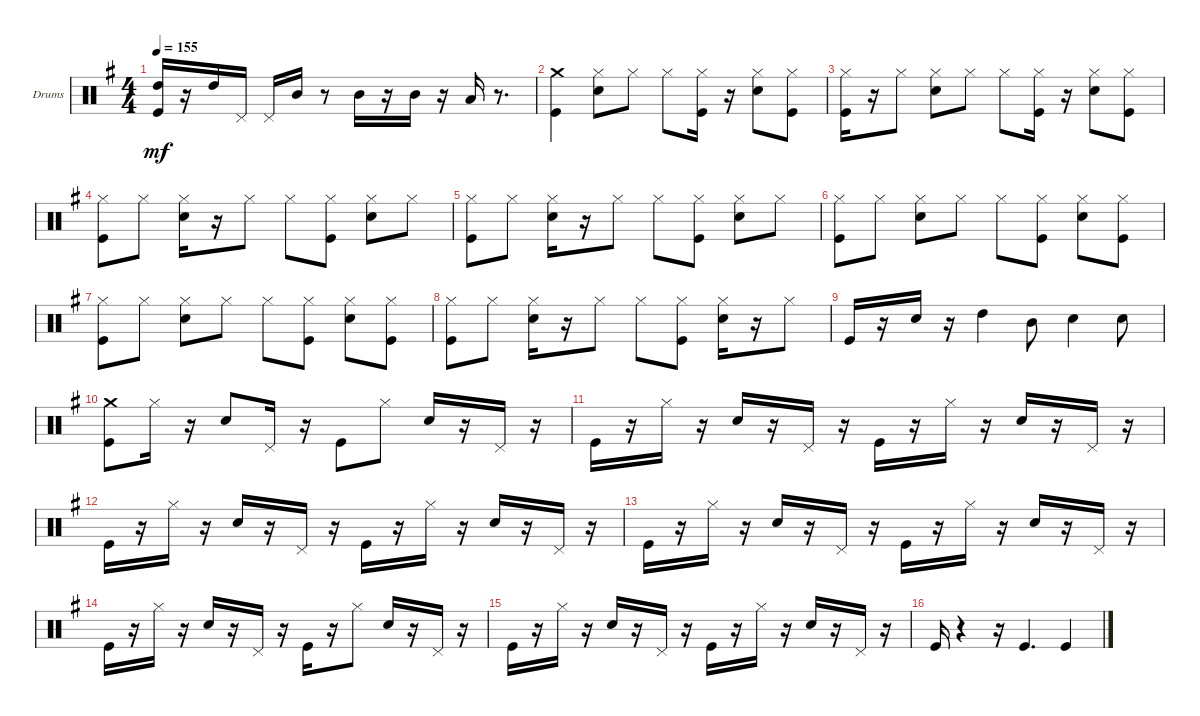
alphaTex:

\bracketExtendMode groupsimilarinstruments
\firstSystemTrackNameOrientation horizontal
\otherSystemsTrackNameOrientation horizontal
\track ("Drumkit" "Drums") {instrument percussion}
\staff {score}
\articulation defaults
\ts (4 4)
\tempo 155
\clef neutral
\scale
0.333333
\ks g
("High Tom (hit)" "Kick (hit)").16{dy mf} r.16 "High Tom (hit)".16 "Pedal Hi-Hat (hit)".16 "Pedal Hi-Hat (hit)".16 "Mid Tom (hit)".16 r.8 "Mid Tom (hit)".16 r.16 "Mid Tom (hit)".16 r.16 "Low Tom (hit)".16 r.8{d} |
\scale
0.333333 ("Crash medium (hit)" "Kick (hit)").4 ("Hi-Hat (closed)" "Snare (hit) 2").8 "Hi-Hat (closed)".8 "Hi-Hat (closed)".8 ("Hi-Hat (closed)" "Kick (hit)").16 r.16 ("Hi-Hat (closed)" "Snare (hit) 2").8 ("Kick (hit)" "Hi-Hat (closed)").8 |
\scale
0.333333 ("Kick (hit)" "Hi-Hat (closed)").16 r.16 "Hi-Hat (closed)".8 ("Hi-Hat (closed)" "Snare (hit) 2").8 "Hi-Hat (closed)".8 "Hi-Hat (closed)".8 ("Hi-Hat (closed)" "Kick (hit)").16 r.16 ("Hi-Hat (closed)" "Snare (hit) 2").8 ("Hi-Hat (closed)" "Kick (hit)").8 |
\scale
0.333333 ("Hi-Hat (closed)" "Kick (hit)").8 "Hi-Hat (closed)".8 ("Hi-Hat (closed)" "Snare (hit) 2").16 r.16 "Hi-Hat (closed)".8 "Hi-Hat (closed)".8 ("Hi-Hat (closed)" "Kick (hit)").8 ("Hi-Hat (closed)" "Snare (hit) 2").8 "Hi-Hat (closed)".8 |
\scale
0.333333 ("Kick (hit)" "Hi-Hat (closed)").8 "Hi-Hat (closed)".8 ("Hi-Hat (closed)" "Snare (hit) 2").16 r.16 "Hi-Hat (closed)".8 "Hi-Hat (closed)".8 ("Hi-Hat (closed)" "Kick (hit)").8 ("Hi-Hat (closed)" "Snare (hit) 2").8 "Hi-Hat (closed)".8 |
\scale
0.333333 ("Hi-Hat (closed)" "Kick (hit)").8 "Hi-Hat (closed)".8 ("Hi-Hat (closed)" "Snare (hit) 2").8 "Hi-Hat (closed)".8 "Hi-Hat (closed)".8 ("Hi-Hat (closed)" "Kick (hit)").8 ("Hi-Hat (closed)" "Snare (hit) 2").8 ("Kick (hit)" "Hi-Hat (closed)").8 |
\scale
0.333333 ("Hi-Hat (closed)" "Kick (hit)").8 "Hi-Hat (closed)".8 ("Hi-Hat (closed)" "Snare (hit) 2").8 "Hi-Hat (closed)".8 "Hi-Hat (closed)".8 ("Hi-Hat (closed)" "Kick (hit)").8 ("Hi-Hat (closed)" "Snare (hit) 2").8 ("Kick (hit)" "Hi-Hat (closed)").8 |
\scale
0.333333 ("Hi-Hat (closed)" "Kick (hit)").8 "Hi-Hat (closed)".8 ("Hi-Hat (closed)" "Snare (hit) 2").16 r.16 "Hi-Hat (closed)".8 "Hi-Hat (closed)".8 ("Hi-Hat (closed)" "Kick (hit)").8 ("Hi-Hat (closed)" "Snare (hit) 2").16 r.16 "Hi-Hat (closed)".8 |
\scale
0.333333 "Kick (hit)".16 r.16 "Snare (hit) 2".16 r.16 "High Tom (hit)".4 "Mid Tom (hit)".8 "Snare (hit) 2".4 "Snare (hit) 2".8 |
\scale
0.333333 ("Crash medium (hit)" "Kick (hit)").8 "Hi-Hat (closed)".16 r.16 "Snare (hit) 2".8 "Pedal Hi-Hat (hit)".16 r.16 "Kick (hit)".8 "Hi-Hat (closed)".8 "Snare (hit) 2".16 r.16 "Pedal Hi-Hat (hit)".16 r.16 |
\scale
0.333333 "Kick (hit)".16 r.16 "Hi-Hat (closed)".16 r.16 "Snare (hit) 2".16 r.16 "Pedal Hi-Hat (hit)".16 r.16 "Kick (hit)".16 r.16 "Hi-Hat (closed)".16 r.16 "Snare (hit) 2".16 r.16 "Pedal Hi-Hat (hit)".16 r.16 |
\scale
0.333333 "Kick (hit)".16 r.16 "Hi-Hat (closed)".16 r.16 "Snare (hit) 2".16 r.16 "Pedal Hi-Hat (hit)".16 r.16 "Kick (hit)".16 r.16 "Hi-Hat (closed)".16 r.16 "Snare (hit) 2".16 r.16 "Pedal Hi-Hat (hit)".16 r.16 |
\scale
0.333333 "Kick (hit)".16 r.16 "Hi-Hat (closed)".16 r.16 "Snare (hit) 2".16 r.16 "Pedal Hi-Hat (hit)".16 r.16 "Kick (hit)".16 r.16 "Hi-Hat (closed)".16 r.16 "Snare (hit) 2".16 r.16 "Pedal Hi-Hat (hit)".16 r.16 |
\scale
0.333333 "Kick (hit)".16 r.16 "Hi-Hat (closed)".16 r.16 "Snare (hit) 2".16 r.16 "Pedal Hi-Hat (hit)".16 r.16 "Kick (hit)".16 r.16 "Hi-Hat (closed)".8 "Snare (hit) 2".16 r.16 "Pedal Hi-Hat (hit)".16 r.16 |
\scale
0.333333 "Kick (hit)".16 r.16 "Hi-Hat (closed)".16 r.16 "Snare (hit) 2".16 r.16 "Pedal Hi-Hat (hit)".16 r.16 "Kick (hit)".16 r.16 "Hi-Hat (closed)".16 r.16 "Snare (hit) 2".16 r.16 "Pedal Hi-Hat (hit)".16 r.16 |
\scale
0.333333 "Kick (hit)".16 r.4 r.16 "Kick (hit)".4{d} "Kick (hit)".4
